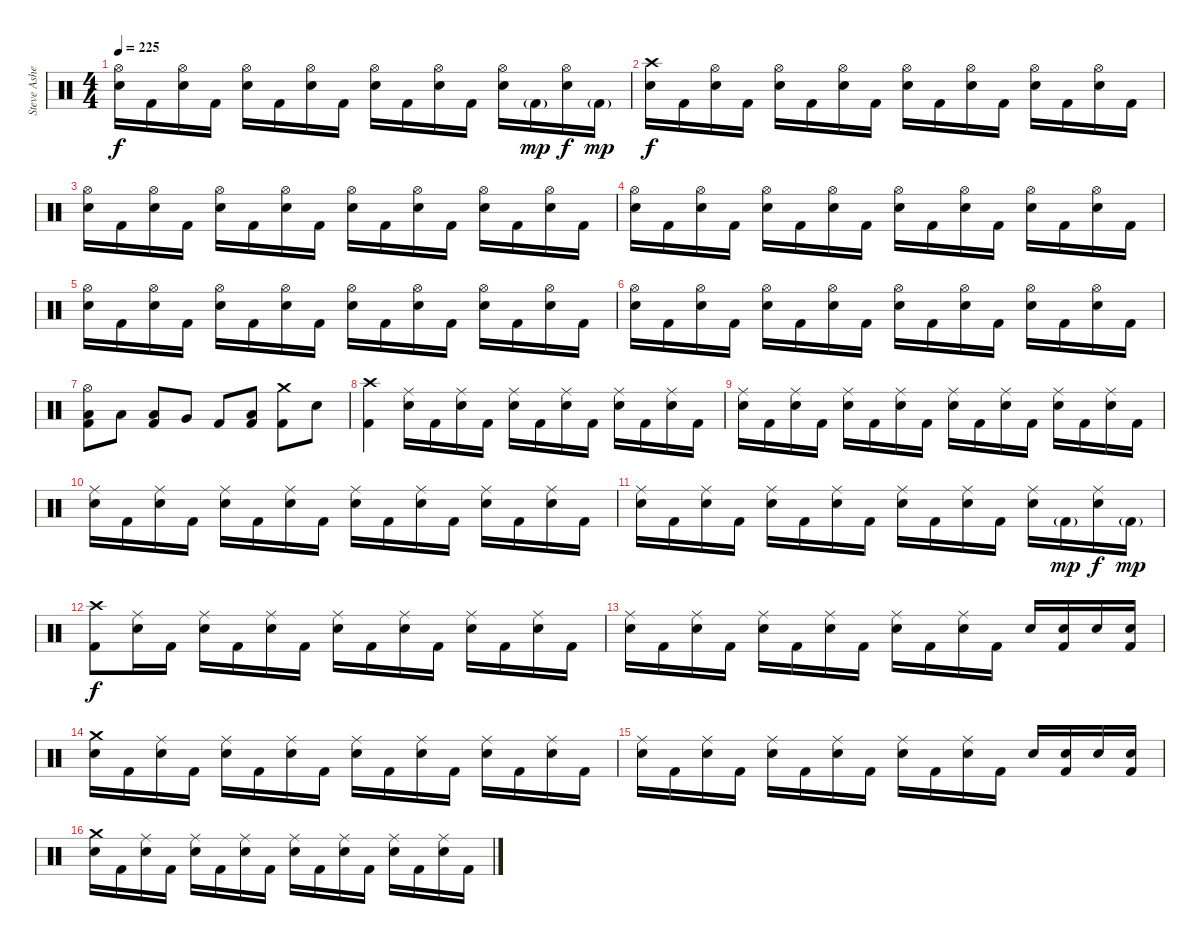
\track ("Steve Asheim" "Steve Ashe") {instrument percussion}
\staff {score}
\articulation defaults
\ts (4 4)
\tempo 225
\clef neutral
\ks c
("Hi-Hat (open)" "Electric Snare (hit)").16{dy f} "Kick (hit) 2".16 ("Hi-Hat (open)" "Electric Snare (hit)").16 "Kick (hit) 2".16 ("Hi-Hat (open)" "Electric Snare (hit)").16 "Kick (hit) 2".16 ("Hi-Hat (open)" "Electric Snare (hit)").16 "Kick (hit) 2".16 ("Hi-Hat (open)" "Electric Snare (hit)").16 "Kick (hit) 2".16 ("Hi-Hat (open)" "Electric Snare (hit)").16 "Kick (hit) 2".16 ("Hi-Hat (open)" "Electric Snare (hit)").16 "Kick (hit) 2"{g}.16{dy mp} ("Hi-Hat (open)" "Electric Snare (hit)").16{dy f} "Kick (hit) 2"{g}.16{dy mp} |
("Crash high (hit)" "Electric Snare (hit)").16{dy f} "Kick (hit) 2".16 ("Hi-Hat (open)" "Electric Snare (hit)").16 "Kick (hit) 2".16 ("Hi-Hat (open)" "Electric Snare (hit)").16 "Kick (hit) 2".16 ("Hi-Hat (open)" "Electric Snare (hit)").16 "Kick (hit) 2".16 ("Hi-Hat (open)" "Electric Snare (hit)").16 "Kick (hit) 2".16 ("Hi-Hat (open)" "Electric Snare (hit)").16 "Kick (hit) 2".16 ("Hi-Hat (open)" "Electric Snare (hit)").16 "Kick (hit) 2".16 ("Hi-Hat (open)" "Electric Snare (hit)").16 "Kick (hit) 2".16 |
("Hi-Hat (open)" "Electric Snare (hit)").16 "Kick (hit) 2".16 ("Hi-Hat (open)" "Electric Snare (hit)").16 "Kick (hit) 2".16 ("Hi-Hat (open)" "Electric Snare (hit)").16 "Kick (hit) 2".16 ("Hi-Hat (open)" "Electric Snare (hit)").16 "Kick (hit) 2".16 ("Hi-Hat (open)" "Electric Snare (hit)").16 "Kick (hit) 2".16 ("Hi-Hat (open)" "Electric Snare (hit)").16 "Kick (hit) 2".16 ("Hi-Hat (open)" "Electric Snare (hit)").16 "Kick (hit) 2".16 ("Hi-Hat (open)" "Electric Snare (hit)").16 "Kick (hit) 2".16 |
("Hi-Hat (open)" "Electric Snare (hit)").16 "Kick (hit) 2".16 ("Hi-Hat (open)" "Electric Snare (hit)").16 "Kick (hit) 2".16 ("Hi-Hat (open)" "Electric Snare (hit)").16 "Kick (hit) 2".16 ("Hi-Hat (open)" "Electric Snare (hit)").16 "Kick (hit) 2".16 ("Hi-Hat (open)" "Electric Snare (hit)").16 "Kick (hit) 2".16 ("Hi-Hat (open)" "Electric Snare (hit)").16 "Kick (hit) 2".16 ("Hi-Hat (open)" "Electric Snare (hit)").16 "Kick (hit) 2".16 ("Hi-Hat (open)" "Electric Snare (hit)").16 "Kick (hit) 2".16 |
("Hi-Hat (open)" "Electric Snare (hit)").16 "Kick (hit) 2".16 ("Hi-Hat (open)" "Electric Snare (hit)").16 "Kick (hit) 2".16 ("Hi-Hat (open)" "Electric Snare (hit)").16 "Kick (hit) 2".16 ("Hi-Hat (open)" "Electric Snare (hit)").16 "Kick (hit) 2".16 ("Hi-Hat (open)" "Electric Snare (hit)").16 "Kick (hit) 2".16 ("Hi-Hat (open)" "Electric Snare (hit)").16 "Kick (hit) 2".16 ("Hi-Hat (open)" "Electric Snare (hit)").16 "Kick (hit) 2".16 ("Hi-Hat (open)" "Electric Snare (hit)").16 "Kick (hit) 2".16 |
("Hi-Hat (open)" "Electric Snare (hit)").16 "Kick (hit) 2".16 ("Hi-Hat (open)" "Electric Snare (hit)").16 "Kick (hit) 2".16 ("Hi-Hat (open)" "Electric Snare (hit)").16 "Kick (hit) 2".16 ("Hi-Hat (open)" "Electric Snare (hit)").16 "Kick (hit) 2".16 ("Hi-Hat (open)" "Electric Snare (hit)").16 "Kick (hit) 2".16 ("Hi-Hat (open)" "Electric Snare (hit)").16 "Kick (hit) 2".16 ("Hi-Hat (open)" "Electric Snare (hit)").16 "Kick (hit) 2".16 ("Hi-Hat (open)" "Electric Snare (hit)").16 "Kick (hit) 2".16 |
("Hi-Hat (open)" "Low Tom (hit)" "Kick (hit) 2").8 "Low Tom (hit)".8 ("Low Tom (hit)" "Kick (hit) 2").8 "Very Low Tom (hit)".8 "Kick (hit) 2".8 ("Low Floor Tom (hit)" "Kick (hit) 2").8 ("Crash medium (hit)" "Kick (hit) 2").8 "Electric Snare (hit)".8 |
("Crash high (hit)" "Kick (hit) 2").4 ("Ride (middle)" "Electric Snare (hit)").16 "Kick (hit) 2".16 ("Ride (middle)" "Electric Snare (hit)").16 "Kick (hit) 2".16 ("Ride (middle)" "Electric Snare (hit)").16 "Kick (hit) 2".16 ("Ride (middle)" "Electric Snare (hit)").16 "Kick (hit) 2".16 ("Ride (middle)" "Electric Snare (hit)").16 "Kick (hit) 2".16 ("Ride (middle)" "Electric Snare (hit)").16 "Kick (hit) 2".16 |
("Ride (middle)" "Electric Snare (hit)").16 "Kick (hit) 2".16 ("Ride (middle)" "Electric Snare (hit)").16 "Kick (hit) 2".16 ("Ride (middle)" "Electric Snare (hit)").16 "Kick (hit) 2".16 ("Ride (middle)" "Electric Snare (hit)").16 "Kick (hit) 2".16 ("Ride (middle)" "Electric Snare (hit)").16 "Kick (hit) 2".16 ("Ride (middle)" "Electric Snare (hit)").16 "Kick (hit) 2".16 ("Ride (middle)" "Electric Snare (hit)").16 "Kick (hit) 2".16 ("Ride (middle)" "Electric Snare (hit)").16 "Kick (hit) 2".16 |
("Ride (middle)" "Electric Snare (hit)").16 "Kick (hit) 2".16 ("Ride (middle)" "Electric Snare (hit)").16 "Kick (hit) 2".16 ("Ride (middle)" "Electric Snare (hit)").16 "Kick (hit) 2".16 ("Ride (middle)" "Electric Snare (hit)").16 "Kick (hit) 2".16 ("Ride (middle)" "Electric Snare (hit)").16 "Kick (hit) 2".16 ("Ride (middle)" "Electric Snare (hit)").16 "Kick (hit) 2".16 ("Ride (middle)" "Electric Snare (hit)").16 "Kick (hit) 2".16 ("Ride (middle)" "Electric Snare (hit)").16 "Kick (hit) 2".16 |
("Ride (middle)" "Electric Snare (hit)").16 "Kick (hit) 2".16 ("Ride (middle)" "Electric Snare (hit)").16 "Kick (hit) 2".16 ("Ride (middle)" "Electric Snare (hit)").16 "Kick (hit) 2".16 ("Ride (middle)" "Electric Snare (hit)").16 "Kick (hit) 2".16 ("Ride (middle)" "Electric Snare (hit)").16 "Kick (hit) 2".16 ("Ride (middle)" "Electric Snare (hit)").16 "Kick (hit) 2".16 ("Ride (middle)" "Electric Snare (hit)").16 "Kick (hit) 2"{g}.16{dy mp} ("Ride (middle)" "Electric Snare (hit)").16{dy f} "Kick (hit) 2"{g}.16{dy mp} |
("Crash high (hit)" "Kick (hit) 2").8{dy f} ("Ride (middle)" "Electric Snare (hit)").16 "Kick (hit) 2".16 ("Ride (middle)" "Electric Snare (hit)").16 "Kick (hit) 2".16 ("Ride (middle)" "Electric Snare (hit)").16 "Kick (hit) 2".16 ("Ride (middle)" "Electric Snare (hit)").16 "Kick (hit) 2".16 ("Ride (middle)" "Electric Snare (hit)").16 "Kick (hit) 2".16 ("Ride (middle)" "Electric Snare (hit)").16 "Kick (hit) 2".16 ("Ride (middle)" "Electric Snare (hit)").16 "Kick (hit) 2".16 |
("Ride (middle)" "Electric Snare (hit)").16 "Kick (hit) 2".16 ("Ride (middle)" "Electric Snare (hit)").16 "Kick (hit) 2".16 ("Ride (middle)" "Electric Snare (hit)").16 "Kick (hit) 2".16 ("Ride (middle)" "Electric Snare (hit)").16 "Kick (hit) 2".16 ("Ride (middle)" "Electric Snare (hit)").16 "Kick (hit) 2".16 ("Ride (middle)" "Electric Snare (hit)").16 "Kick (hit) 2".16 "Electric Snare (hit)".16 ("Electric Snare (hit)" "Kick (hit) 2").16 "Electric Snare (hit)".16 ("Electric Snare (hit)" "Kick (hit) 2").16 |
("Crash medium (hit)" "Electric Snare (hit)").16 "Kick (hit) 2".16 ("Ride (middle)" "Electric Snare (hit)").16 "Kick (hit) 2".16 ("Ride (middle)" "Electric Snare (hit)").16 "Kick (hit) 2".16 ("Ride (middle)" "Electric Snare (hit)").16 "Kick (hit) 2".16 ("Ride (middle)" "Electric Snare (hit)").16 "Kick (hit) 2".16 ("Ride (middle)" "Electric Snare (hit)").16 "Kick (hit) 2".16 ("Ride (middle)" "Electric Snare (hit)").16 "Kick (hit) 2".16 ("Ride (middle)" "Electric Snare (hit)").16 "Kick (hit) 2".16 |
("Ride (middle)" "Electric Snare (hit)").16 "Kick (hit) 2".16 ("Ride (middle)" "Electric Snare (hit)").16 "Kick (hit) 2".16 ("Ride (middle)" "Electric Snare (hit)").16 "Kick (hit) 2".16 ("Ride (middle)" "Electric Snare (hit)").16 "Kick (hit) 2".16 ("Ride (middle)" "Electric Snare (hit)").16 "Kick (hit) 2".16 ("Ride (middle)" "Electric Snare (hit)").16 "Kick (hit) 2".16 "Electric Snare (hit)".16 ("Electric Snare (hit)" "Kick (hit) 2").16 "Electric Snare (hit)".16 ("Electric Snare (hit)" "Kick (hit) 2").16 |
("Crash medium (hit)" "Electric Snare (hit)").16 "Kick (hit) 2".16 ("Ride (middle)" "Electric Snare (hit)").16 "Kick (hit) 2".16 ("Ride (middle)" "Electric Snare (hit)").16 "Kick (hit) 2".16 ("Ride (middle)" "Electric Snare (hit)").16 "Kick (hit) 2".16 ("Ride (middle)" "Electric Snare (hit)").16 "Kick (hit) 2".16 ("Ride (middle)" "Electric Snare (hit)").16 "Kick (hit) 2".16 ("Ride (middle)" "Electric Snare (hit)").16 "Kick (hit) 2".16 ("Ride (middle)" "Electric Snare (hit)").16 "Kick (hit) 2".16
